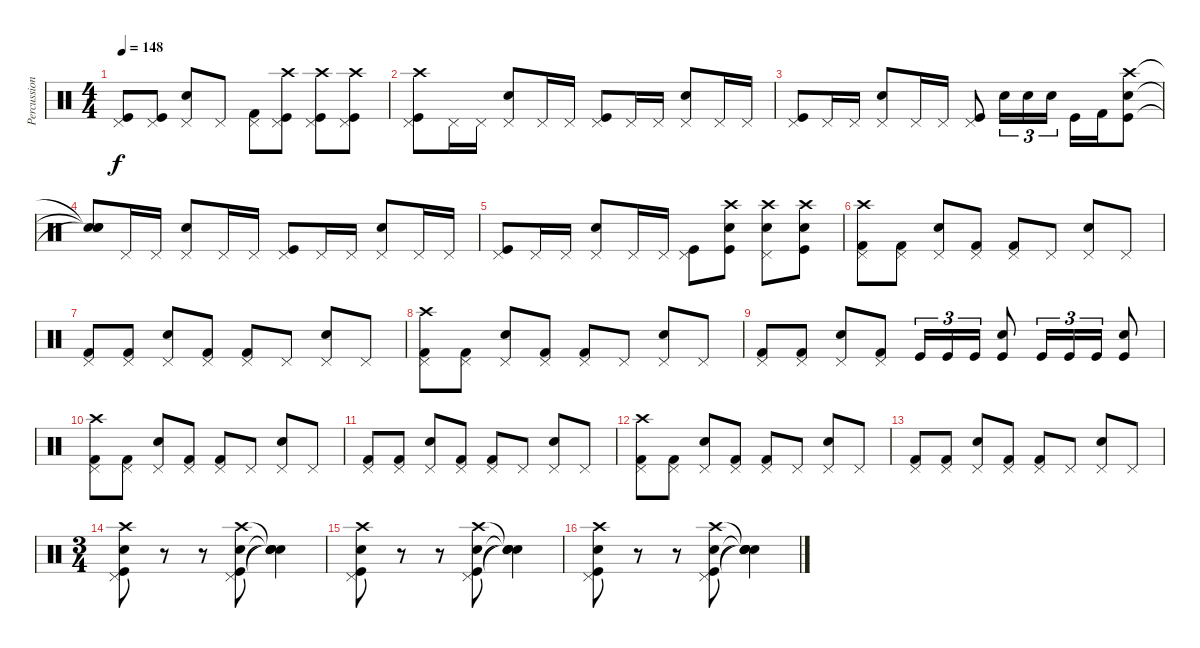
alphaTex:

\track ("Percussion" "Percussion") {instrument percussion}
\staff {score}
\articulation defaults
\ts (4 4)
\tempo 148
\clef neutral
\ks c
("Pedal Hi-Hat (hit)" "Kick (hit)").8{dy f} ("Pedal Hi-Hat (hit)" "Kick (hit)").8 ("Pedal Hi-Hat (hit)" "Snare (hit) 2").8 "Pedal Hi-Hat (hit)".8 ("Pedal Hi-Hat (hit)" "Kick (hit) 2").8 ("Crash high (hit)" "Kick (hit)" "Pedal Hi-Hat (hit)").8 ("Crash high (hit)" "Kick (hit)" "Pedal Hi-Hat (hit)").8 ("Crash high (hit)" "Kick (hit)" "Pedal Hi-Hat (hit)").8 |
("Pedal Hi-Hat (hit)" "Kick (hit)" "Crash high (hit)").8 "Pedal Hi-Hat (hit)".16 "Pedal Hi-Hat (hit)".16 ("Pedal Hi-Hat (hit)" "Snare (hit) 2").8 "Pedal Hi-Hat (hit)".16 "Pedal Hi-Hat (hit)".16 ("Pedal Hi-Hat (hit)" "Kick (hit)").8 "Pedal Hi-Hat (hit)".16 "Pedal Hi-Hat (hit)".16 ("Pedal Hi-Hat (hit)" "Snare (hit) 2").8 "Pedal Hi-Hat (hit)".16 "Pedal Hi-Hat (hit)".16 |
("Pedal Hi-Hat (hit)" "Kick (hit)").8 "Pedal Hi-Hat (hit)".16 "Pedal Hi-Hat (hit)".16 ("Pedal Hi-Hat (hit)" "Snare (hit) 2").8 "Pedal Hi-Hat (hit)".16 "Pedal Hi-Hat (hit)".16 ("Pedal Hi-Hat (hit)" "Kick (hit)").8 "Snare (hit) 2".16{tu (3 2)} "Snare (hit) 2".16{tu (3 2)} "Snare (hit) 2".16{tu (3 2)} "Kick (hit)".16 "Kick (hit) 2".16 ("Snare (hit) 2" "Crash high (hit)" "Kick (hit)").8 |
("Snare (hit)"{t} "Snare (hit)"{t} "Snare (hit)"{t}).8 "Pedal Hi-Hat (hit)".16 "Pedal Hi-Hat (hit)".16 ("Pedal Hi-Hat (hit)" "Snare (hit) 2").8 "Pedal Hi-Hat (hit)".16 "Pedal Hi-Hat (hit)".16 ("Pedal Hi-Hat (hit)" "Kick (hit)").8 "Pedal Hi-Hat (hit)".16 "Pedal Hi-Hat (hit)".16 ("Pedal Hi-Hat (hit)" "Snare (hit) 2").8 "Pedal Hi-Hat (hit)".16 "Pedal Hi-Hat (hit)".16 |
("Pedal Hi-Hat (hit)" "Kick (hit)").8 "Pedal Hi-Hat (hit)".16 "Pedal Hi-Hat (hit)".16 ("Pedal Hi-Hat (hit)" "Snare (hit) 2").8 "Pedal Hi-Hat (hit)".16 "Pedal Hi-Hat (hit)".16 ("Pedal Hi-Hat (hit)" "Kick (hit)").8 ("Crash high (hit)" "Kick (hit)" "Snare (hit) 2").8 ("Pedal Hi-Hat (hit)" "Snare (hit) 2" "Crash high (hit)").8 ("Crash high (hit)" "Kick (hit)" "Snare (hit) 2").8 |
("Pedal Hi-Hat (hit)" "Kick (hit) 2" "Crash high (hit)").8 ("Pedal Hi-Hat (hit)" "Kick (hit) 2").8 ("Pedal Hi-Hat (hit)" "Snare (hit) 2").8 ("Pedal Hi-Hat (hit)" "Kick (hit) 2").8 ("Pedal Hi-Hat (hit)" "Kick (hit) 2").8 "Pedal Hi-Hat (hit)".8 ("Pedal Hi-Hat (hit)" "Snare (hit) 2").8 "Pedal Hi-Hat (hit)".8 |
("Pedal Hi-Hat (hit)" "Kick (hit) 2").8 ("Pedal Hi-Hat (hit)" "Kick (hit) 2").8 ("Pedal Hi-Hat (hit)" "Snare (hit) 2").8 ("Pedal Hi-Hat (hit)" "Kick (hit) 2").8 ("Pedal Hi-Hat (hit)" "Kick (hit) 2").8 "Pedal Hi-Hat (hit)".8 ("Pedal Hi-Hat (hit)" "Snare (hit) 2").8 "Pedal Hi-Hat (hit)".8 |
("Pedal Hi-Hat (hit)" "Kick (hit) 2" "Crash high (hit)").8 ("Pedal Hi-Hat (hit)" "Kick (hit) 2").8 ("Pedal Hi-Hat (hit)" "Snare (hit) 2").8 ("Pedal Hi-Hat (hit)" "Kick (hit) 2").8 ("Pedal Hi-Hat (hit)" "Kick (hit) 2").8 "Pedal Hi-Hat (hit)".8 ("Pedal Hi-Hat (hit)" "Snare (hit) 2").8 "Pedal Hi-Hat (hit)".8 |
("Pedal Hi-Hat (hit)" "Kick (hit) 2").8 ("Pedal Hi-Hat (hit)" "Kick (hit) 2").8 ("Pedal Hi-Hat (hit)" "Snare (hit) 2").8 ("Pedal Hi-Hat (hit)" "Kick (hit) 2").8 "Kick (hit)".16{tu (3 2)} "Kick (hit)".16{tu (3 2)} "Kick (hit)".16{tu (3 2)} ("Snare (hit) 2" "Kick (hit)").8 "Kick (hit)".16{tu (3 2)} "Kick (hit)".16{tu (3 2)} "Kick (hit)".16{tu (3 2)} ("Snare (hit) 2" "Kick (hit)").8 |
("Pedal Hi-Hat (hit)" "Kick (hit) 2" "Crash high (hit)").8 ("Pedal Hi-Hat (hit)" "Kick (hit) 2").8 ("Pedal Hi-Hat (hit)" "Snare (hit) 2").8 ("Pedal Hi-Hat (hit)" "Kick (hit) 2").8 ("Pedal Hi-Hat (hit)" "Kick (hit) 2").8 "Pedal Hi-Hat (hit)".8 ("Pedal Hi-Hat (hit)" "Snare (hit) 2").8 "Pedal Hi-Hat (hit)".8 |
("Pedal Hi-Hat (hit)" "Kick (hit) 2").8 ("Pedal Hi-Hat (hit)" "Kick (hit) 2").8 ("Pedal Hi-Hat (hit)" "Snare (hit) 2").8 ("Pedal Hi-Hat (hit)" "Kick (hit) 2").8 ("Pedal Hi-Hat (hit)" "Kick (hit) 2").8 "Pedal Hi-Hat (hit)".8 ("Pedal Hi-Hat (hit)" "Snare (hit) 2").8 "Pedal Hi-Hat (hit)".8 |
("Pedal Hi-Hat (hit)" "Kick (hit) 2" "Crash high (hit)").8 ("Pedal Hi-Hat (hit)" "Kick (hit) 2").8 ("Pedal Hi-Hat (hit)" "Snare (hit) 2").8 ("Pedal Hi-Hat (hit)" "Kick (hit) 2").8 ("Pedal Hi-Hat (hit)" "Kick (hit) 2").8 "Pedal Hi-Hat (hit)".8 ("Pedal Hi-Hat (hit)" "Snare (hit) 2").8 "Pedal Hi-Hat (hit)".8 |
("Pedal Hi-Hat (hit)" "Kick (hit) 2").8 ("Pedal Hi-Hat (hit)" "Kick (hit) 2").8 ("Pedal Hi-Hat (hit)" "Snare (hit) 2").8 ("Pedal Hi-Hat (hit)" "Kick (hit) 2").8 ("Pedal Hi-Hat (hit)" "Kick (hit) 2").8 "Pedal Hi-Hat (hit)".8 ("Pedal Hi-Hat (hit)" "Snare (hit) 2").8 "Pedal Hi-Hat (hit)".8 |
\ts (3 4)
("Pedal Hi-Hat (hit)" "Kick (hit)" "Snare (hit) 2" "Crash high (hit)").8 r.8 r.8 ("Pedal Hi-Hat (hit)" "Kick (hit)" "Snare (hit) 2" "Crash high (hit)").8 ("Snare (hit)"{t} "Snare (hit)"{t} "Snare (hit)"{t} "Snare (hit)"{t}).4 |
("Pedal Hi-Hat (hit)" "Kick (hit)" "Snare (hit) 2" "Crash high (hit)").8 r.8 r.8 ("Pedal Hi-Hat (hit)" "Kick (hit)" "Snare (hit) 2" "Crash high (hit)").8 ("Snare (hit)"{t} "Snare (hit)"{t} "Snare (hit)"{t} "Snare (hit)"{t}).4 |
("Pedal Hi-Hat (hit)" "Kick (hit)" "Snare (hit) 2" "Crash high (hit)").8 r.8 r.8 ("Pedal Hi-Hat (hit)" "Kick (hit)" "Snare (hit) 2" "Crash high (hit)").8 ("Snare (hit)"{t} "Snare (hit)"{t} "Snare (hit)"{t} "Snare (hit)"{t}).4
